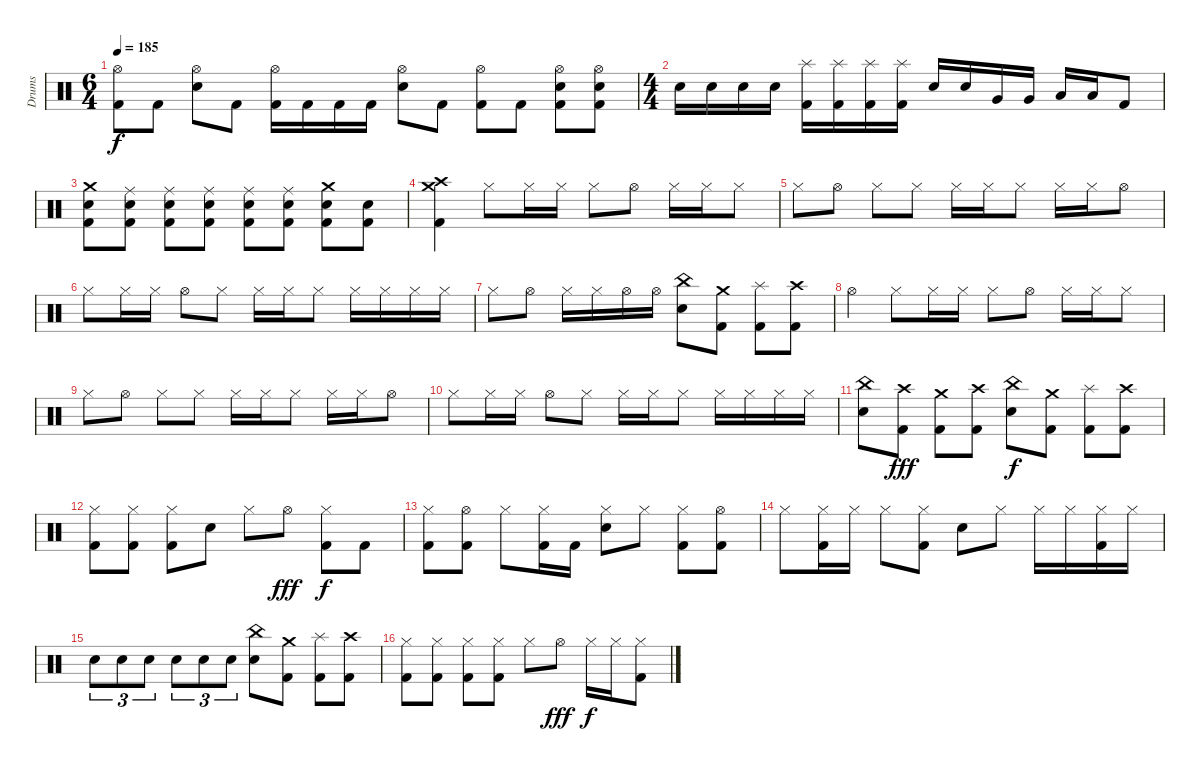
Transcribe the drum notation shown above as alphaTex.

\track ("Drums" "Drums") {instrument percussion}
\staff {score}
\articulation defaults
\ts (6 4)
\tempo 185
\clef neutral
\ks c
("Hi-Hat (open)" "Kick (hit) 2").8{dy f} "Kick (hit) 2".8 ("Electric Snare (hit)" "Hi-Hat (open)").8 "Kick (hit) 2".8 ("Hi-Hat (open)" "Kick (hit) 2").16 "Kick (hit) 2".16 "Kick (hit) 2".16 "Kick (hit) 2".16 ("Electric Snare (hit)" "Hi-Hat (open)").8 "Kick (hit) 2".8 ("Hi-Hat (open)" "Kick (hit) 2").8 "Kick (hit) 2".8 ("Hi-Hat (open)" "Electric Snare (hit)" "Kick (hit) 2").8 ("Hi-Hat (open)" "Electric Snare (hit)" "Kick (hit) 2").8 |
\ts (4 4)
"Electric Snare (hit)".16 "Electric Snare (hit)".16 "Electric Snare (hit)".16 "Electric Snare (hit)".16 ("Splash (hit)" "Kick (hit) 2").16 ("Splash (hit)" "Kick (hit) 2").16 ("Splash (hit)" "Kick (hit) 2").16 ("Splash (hit)" "Kick (hit) 2").16 "Electric Snare (hit)".16 "Electric Snare (hit)".16 "Very Low Tom (hit)".16 "Very Low Tom (hit)".16 "Low Floor Tom (hit)".16 "Low Floor Tom (hit)".16 "Kick (hit) 2".8 |
("Crash medium (hit)" "Electric Snare (hit)" "Kick (hit) 2").8 ("Ride (middle)" "Electric Snare (hit)" "Kick (hit) 2").8 ("Ride (middle)" "Electric Snare (hit)" "Kick (hit) 2").8 ("Ride (middle)" "Electric Snare (hit)" "Kick (hit) 2").8 ("Ride (middle)" "Electric Snare (hit)" "Kick (hit) 2").8 ("Ride (middle)" "Electric Snare (hit)" "Kick (hit) 2").8 ("Crash medium (hit)" "Electric Snare (hit)" "Kick (hit) 2").8 ("Electric Snare (hit)" "Kick (hit) 2").8 |
("Crash high (hit)" "Crash medium (hit)" "Kick (hit) 2").4 "Hi-Hat (closed)".8 "Hi-Hat (closed)".16 "Hi-Hat (closed)".16 "Hi-Hat (closed)".8 "Hi-Hat (open)".8 "Hi-Hat (closed)".16 "Hi-Hat (closed)".16 "Hi-Hat (closed)".8 |
"Hi-Hat (closed)".8 "Hi-Hat (open)".8 "Hi-Hat (closed)".8 "Hi-Hat (closed)".8 "Hi-Hat (closed)".16 "Hi-Hat (closed)".16 "Hi-Hat (closed)".8 "Hi-Hat (closed)".16 "Hi-Hat (closed)".16 "Hi-Hat (open)".8 |
"Hi-Hat (closed)".8 "Hi-Hat (closed)".16 "Hi-Hat (closed)".16 "Hi-Hat (open)".8 "Hi-Hat (closed)".8 "Hi-Hat (closed)".16 "Hi-Hat (closed)".16 "Hi-Hat (closed)".8 "Hi-Hat (closed)".16 "Hi-Hat (closed)".16 "Hi-Hat (closed)".16 "Hi-Hat (closed)".16 |
"Hi-Hat (closed)".8 "Hi-Hat (open)".8 "Hi-Hat (closed)".16 "Hi-Hat (closed)".16 "Hi-Hat (open)".16 "Hi-Hat (open)".16 ("China (hit)" "Electric Snare (hit)").8 ("Crash medium (hit)" "Kick (hit) 2").8 ("Splash (hit)" "Kick (hit) 2").8 ("Crash high (hit)" "Kick (hit) 2").8 |
"Hi-Hat (open)".4 "Hi-Hat (closed)".8 "Hi-Hat (closed)".16 "Hi-Hat (closed)".16 "Hi-Hat (closed)".8 "Hi-Hat (open)".8 "Hi-Hat (closed)".16 "Hi-Hat (closed)".16 "Hi-Hat (closed)".8 |
"Hi-Hat (closed)".8 "Hi-Hat (open)".8 "Hi-Hat (closed)".8 "Hi-Hat (closed)".8 "Hi-Hat (closed)".16 "Hi-Hat (closed)".16 "Hi-Hat (closed)".8 "Hi-Hat (closed)".16 "Hi-Hat (closed)".16 "Hi-Hat (open)".8 |
"Hi-Hat (closed)".8 "Hi-Hat (closed)".16 "Hi-Hat (closed)".16 "Hi-Hat (open)".8 "Hi-Hat (closed)".8 "Hi-Hat (closed)".16 "Hi-Hat (closed)".16 "Hi-Hat (closed)".8 "Hi-Hat (closed)".16 "Hi-Hat (closed)".16 "Hi-Hat (closed)".16 "Hi-Hat (closed)".16 |
("China (hit)" "Electric Snare (hit)").8 ("Crash high (hit)" "Kick (hit) 2").8{dy fff} ("Crash medium (hit)" "Kick (hit) 2").8 ("Crash high (hit)" "Kick (hit) 2").8 ("China (hit)" "Electric Snare (hit)").8{dy f} ("Crash medium (hit)" "Kick (hit) 2").8 ("Splash (hit)" "Kick (hit) 2").8 ("Crash high (hit)" "Kick (hit) 2").8 |
("Hi-Hat (closed)" "Kick (hit) 2").8 ("Hi-Hat (closed)" "Kick (hit) 2").8 ("Hi-Hat (closed)" "Kick (hit) 2").8 "Electric Snare (hit)".8 "Hi-Hat (closed)".8 "Hi-Hat (open)".8{dy fff} ("Hi-Hat (closed)" "Kick (hit) 2").8{dy f} "Kick (hit) 2".8 |
("Hi-Hat (closed)" "Kick (hit) 2").8 ("Hi-Hat (open)" "Kick (hit) 2").8 "Hi-Hat (closed)".8 ("Hi-Hat (closed)" "Kick (hit) 2").16 "Kick (hit) 2".16 ("Electric Snare (hit)" "Hi-Hat (closed)").8 "Hi-Hat (closed)".8 ("Hi-Hat (closed)" "Kick (hit) 2").8 ("Hi-Hat (open)" "Kick (hit) 2").8 |
"Hi-Hat (closed)".8 ("Hi-Hat (closed)" "Kick (hit) 2").16 "Hi-Hat (closed)".16 "Hi-Hat (closed)".8 ("Hi-Hat (closed)" "Kick (hit) 2").8 "Electric Snare (hit)".8 "Hi-Hat (closed)".8 "Hi-Hat (closed)".16 "Hi-Hat (closed)".16 ("Hi-Hat (closed)" "Kick (hit) 2").16 "Hi-Hat (closed)".16 |
"Electric Snare (hit)".8{tu (3 2)} "Electric Snare (hit)".8{tu (3 2)} "Electric Snare (hit)".8{tu (3 2)} "Electric Snare (hit)".8{tu (3 2)} "Electric Snare (hit)".8{tu (3 2)} "Electric Snare (hit)".8{tu (3 2)} ("China (hit)" "Electric Snare (hit)").8 ("Crash medium (hit)" "Kick (hit) 2").8 ("Splash (hit)" "Kick (hit) 2").8 ("Crash high (hit)" "Kick (hit) 2").8 |
("Hi-Hat (closed)" "Kick (hit) 2").8 ("Hi-Hat (closed)" "Kick (hit) 2").8 ("Hi-Hat (closed)" "Kick (hit) 2").8 ("Hi-Hat (closed)" "Kick (hit) 2").8 "Hi-Hat (closed)".8 "Hi-Hat (open)".8{dy fff} "Hi-Hat (closed)".16{dy f} "Hi-Hat (closed)".16 ("Hi-Hat (closed)" "Kick (hit) 2").8
